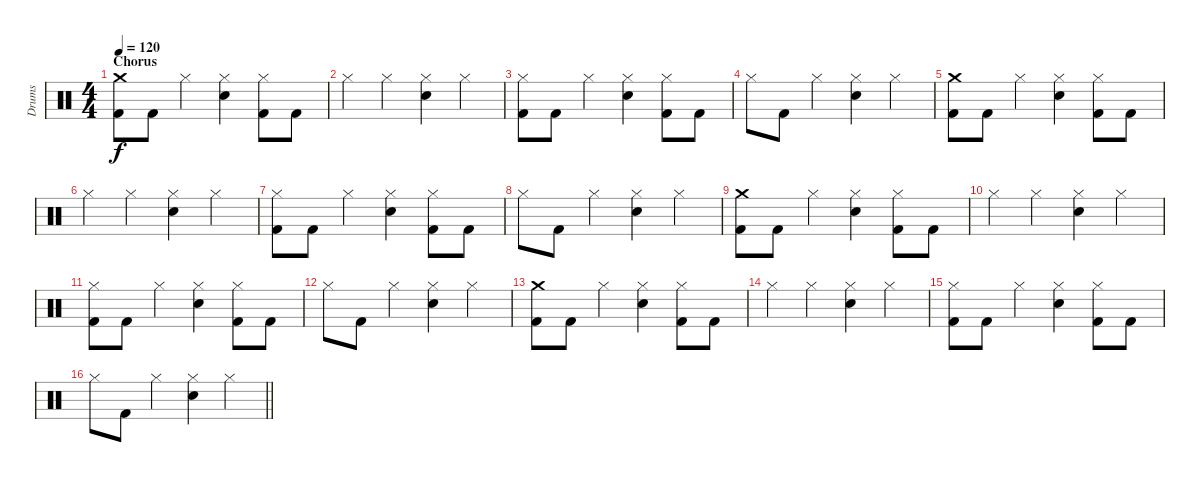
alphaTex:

\track ("Drums" "Drums") {instrument percussion}
\staff {score}
\articulation defaults
\ts (4 4)
\section ("" "Chorus")
\tempo 120
\clef neutral
\ks c
("Crash medium (hit)" "Kick (hit) 2").8{dy f} "Kick (hit) 2".8 "Hi-Hat (closed)".4 ("Hi-Hat (closed)" "Snare (hit) 2").4 ("Hi-Hat (closed)" "Kick (hit) 2").8 "Kick (hit) 2".8 |
"Hi-Hat (closed)".4 "Hi-Hat (closed)".4 ("Hi-Hat (closed)" "Snare (hit) 2").4 "Hi-Hat (closed)".4 |
("Hi-Hat (closed)" "Kick (hit) 2").8 "Kick (hit) 2".8 "Hi-Hat (closed)".4 ("Hi-Hat (closed)" "Snare (hit) 2").4 ("Hi-Hat (closed)" "Kick (hit) 2").8 "Kick (hit) 2".8 |
"Hi-Hat (closed)".8 "Kick (hit) 2".8 "Hi-Hat (closed)".4 ("Hi-Hat (closed)" "Snare (hit) 2").4 "Hi-Hat (closed)".4 |
("Crash medium (hit)" "Kick (hit) 2").8 "Kick (hit) 2".8 "Hi-Hat (closed)".4 ("Hi-Hat (closed)" "Snare (hit) 2").4 ("Hi-Hat (closed)" "Kick (hit) 2").8 "Kick (hit) 2".8 |
"Hi-Hat (closed)".4 "Hi-Hat (closed)".4 ("Hi-Hat (closed)" "Snare (hit) 2").4 "Hi-Hat (closed)".4 |
("Hi-Hat (closed)" "Kick (hit) 2").8 "Kick (hit) 2".8 "Hi-Hat (closed)".4 ("Hi-Hat (closed)" "Snare (hit) 2").4 ("Hi-Hat (closed)" "Kick (hit) 2").8 "Kick (hit) 2".8 |
"Hi-Hat (closed)".8 "Kick (hit) 2".8 "Hi-Hat (closed)".4 ("Hi-Hat (closed)" "Snare (hit) 2").4 "Hi-Hat (closed)".4 |
("Crash medium (hit)" "Kick (hit) 2").8 "Kick (hit) 2".8 "Hi-Hat (closed)".4 ("Hi-Hat (closed)" "Snare (hit) 2").4 ("Hi-Hat (closed)" "Kick (hit) 2").8 "Kick (hit) 2".8 |
"Hi-Hat (closed)".4 "Hi-Hat (closed)".4 ("Hi-Hat (closed)" "Snare (hit) 2").4 "Hi-Hat (closed)".4 |
("Hi-Hat (closed)" "Kick (hit) 2").8 "Kick (hit) 2".8 "Hi-Hat (closed)".4 ("Hi-Hat (closed)" "Snare (hit) 2").4 ("Hi-Hat (closed)" "Kick (hit) 2").8 "Kick (hit) 2".8 |
"Hi-Hat (closed)".8 "Kick (hit) 2".8 "Hi-Hat (closed)".4 ("Hi-Hat (closed)" "Snare (hit) 2").4 "Hi-Hat (closed)".4 |
("Crash medium (hit)" "Kick (hit) 2").8 "Kick (hit) 2".8 "Hi-Hat (closed)".4 ("Hi-Hat (closed)" "Snare (hit) 2").4 ("Hi-Hat (closed)" "Kick (hit) 2").8 "Kick (hit) 2".8 |
"Hi-Hat (closed)".4 "Hi-Hat (closed)".4 ("Hi-Hat (closed)" "Snare (hit) 2").4 "Hi-Hat (closed)".4 |
("Hi-Hat (closed)" "Kick (hit) 2").8 "Kick (hit) 2".8 "Hi-Hat (closed)".4 ("Hi-Hat (closed)" "Snare (hit) 2").4 ("Hi-Hat (closed)" "Kick (hit) 2").8 "Kick (hit) 2".8 |
\barLineRight lightlight "Hi-Hat (closed)".8 "Kick (hit) 2".8 "Hi-Hat (closed)".4
("Hi-Hat (closed)" "Snare (hit) 2").4 "Hi-Hat (closed)".4
